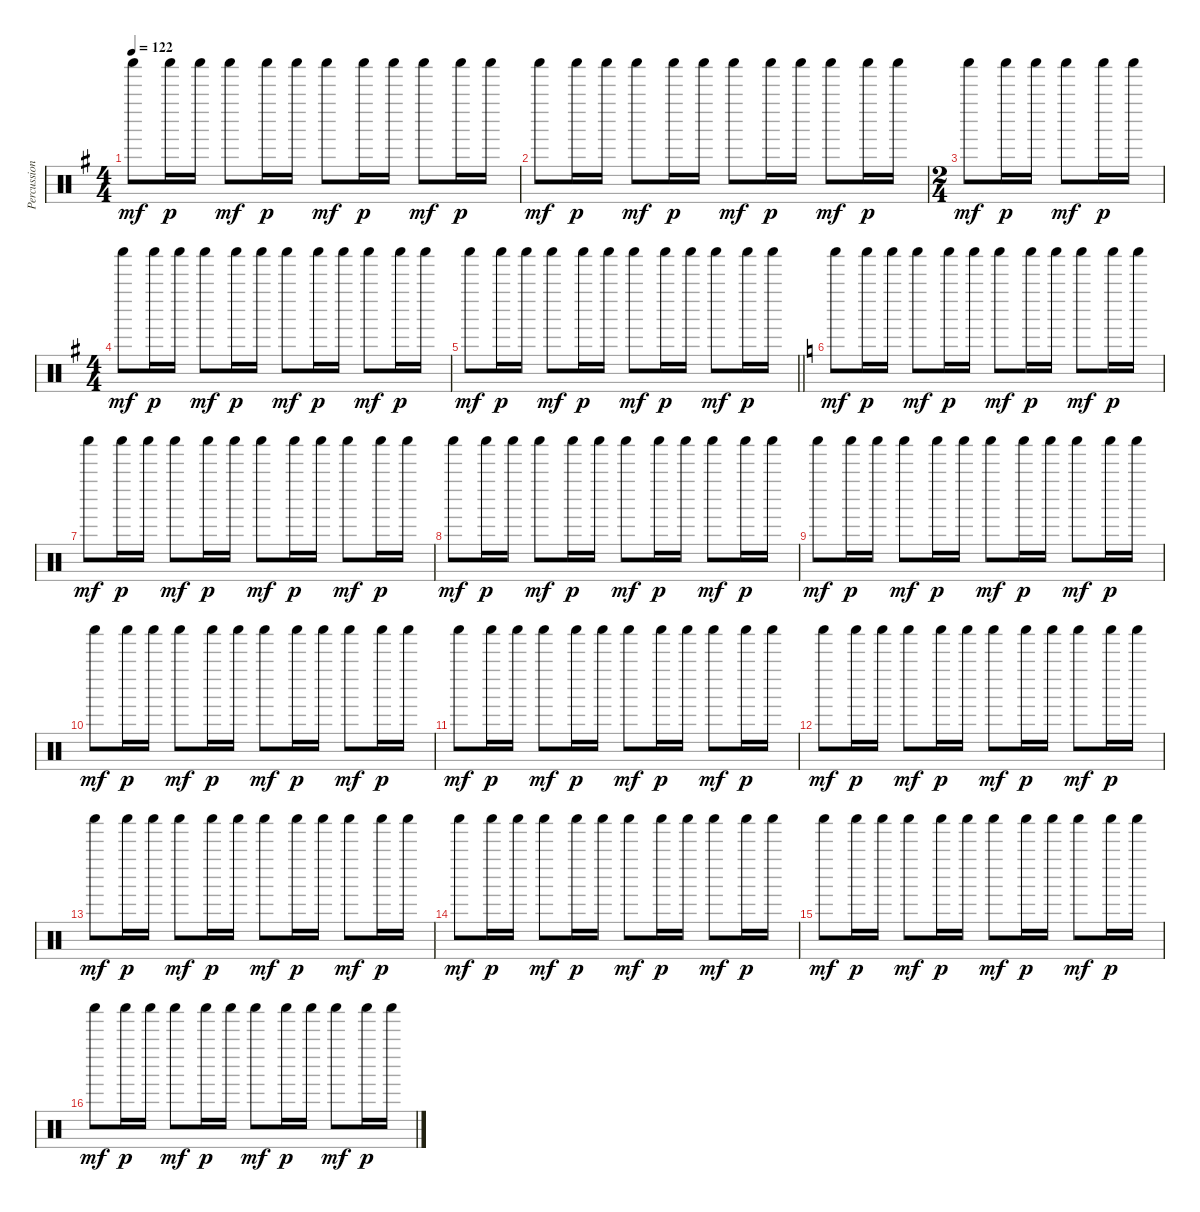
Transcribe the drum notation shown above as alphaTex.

\track ("Percussion" "Percussion") {instrument percussion}
\staff {score}
\articulation defaults
\ts (4 4)
\tempo 122
\clef neutral
\ks g "Shaker (hit)".8{dy mf} "Shaker (hit)".16{dy p} "Shaker (hit)".16 "Shaker (hit)".8{dy mf} "Shaker (hit)".16{dy p} "Shaker (hit)".16 "Shaker (hit)".8{dy mf} "Shaker (hit)".16{dy p} "Shaker (hit)".16 "Shaker (hit)".8{dy mf} "Shaker (hit)".16{dy p} "Shaker (hit)".16
|
"Shaker (hit)".8{dy mf} "Shaker (hit)".16{dy p} "Shaker (hit)".16 "Shaker (hit)".8{dy mf} "Shaker (hit)".16{dy p} "Shaker (hit)".16 "Shaker (hit)".8{dy mf} "Shaker (hit)".16{dy p} "Shaker (hit)".16 "Shaker (hit)".8{dy mf} "Shaker (hit)".16{dy p} "Shaker (hit)".16 |
\ts (2 4)
"Shaker (hit)".8{dy mf} "Shaker (hit)".16{dy p} "Shaker (hit)".16 "Shaker (hit)".8{dy mf} "Shaker (hit)".16{dy p} "Shaker (hit)".16 |
\ts (4 4)
"Shaker (hit)".8{dy mf} "Shaker (hit)".16{dy p} "Shaker (hit)".16 "Shaker (hit)".8{dy mf} "Shaker (hit)".16{dy p} "Shaker (hit)".16 "Shaker (hit)".8{dy mf} "Shaker (hit)".16{dy p} "Shaker (hit)".16 "Shaker (hit)".8{dy mf} "Shaker (hit)".16{dy p} "Shaker (hit)".16 |
\barLineRight lightlight "Shaker (hit)".8{dy mf} "Shaker (hit)".16{dy p} "Shaker (hit)".16 "Shaker (hit)".8{dy mf} "Shaker (hit)".16{dy p} "Shaker (hit)".16 "Shaker (hit)".8{dy mf} "Shaker (hit)".16{dy p} "Shaker (hit)".16 "Shaker (hit)".8{dy mf} "Shaker (hit)".16{dy p} "Shaker (hit)".16
|
\ks c "Shaker (hit)".8{dy mf} "Shaker (hit)".16{dy p} "Shaker (hit)".16 "Shaker (hit)".8{dy mf} "Shaker (hit)".16{dy p} "Shaker (hit)".16 "Shaker (hit)".8{dy mf} "Shaker (hit)".16{dy p} "Shaker (hit)".16 "Shaker (hit)".8{dy mf} "Shaker (hit)".16{dy p} "Shaker (hit)".16
|
"Shaker (hit)".8{dy mf} "Shaker (hit)".16{dy p} "Shaker (hit)".16 "Shaker (hit)".8{dy mf} "Shaker (hit)".16{dy p} "Shaker (hit)".16 "Shaker (hit)".8{dy mf} "Shaker (hit)".16{dy p} "Shaker (hit)".16 "Shaker (hit)".8{dy mf} "Shaker (hit)".16{dy p} "Shaker (hit)".16 |
"Shaker (hit)".8{dy mf} "Shaker (hit)".16{dy p} "Shaker (hit)".16 "Shaker (hit)".8{dy mf} "Shaker (hit)".16{dy p} "Shaker (hit)".16 "Shaker (hit)".8{dy mf} "Shaker (hit)".16{dy p} "Shaker (hit)".16 "Shaker (hit)".8{dy mf} "Shaker (hit)".16{dy p} "Shaker (hit)".16 |
"Shaker (hit)".8{dy mf} "Shaker (hit)".16{dy p} "Shaker (hit)".16 "Shaker (hit)".8{dy mf} "Shaker (hit)".16{dy p} "Shaker (hit)".16 "Shaker (hit)".8{dy mf} "Shaker (hit)".16{dy p} "Shaker (hit)".16 "Shaker (hit)".8{dy mf} "Shaker (hit)".16{dy p} "Shaker (hit)".16 |
"Shaker (hit)".8{dy mf} "Shaker (hit)".16{dy p} "Shaker (hit)".16 "Shaker (hit)".8{dy mf} "Shaker (hit)".16{dy p} "Shaker (hit)".16 "Shaker (hit)".8{dy mf} "Shaker (hit)".16{dy p} "Shaker (hit)".16 "Shaker (hit)".8{dy mf} "Shaker (hit)".16{dy p} "Shaker (hit)".16 |
"Shaker (hit)".8{dy mf} "Shaker (hit)".16{dy p} "Shaker (hit)".16 "Shaker (hit)".8{dy mf} "Shaker (hit)".16{dy p} "Shaker (hit)".16 "Shaker (hit)".8{dy mf} "Shaker (hit)".16{dy p} "Shaker (hit)".16 "Shaker (hit)".8{dy mf} "Shaker (hit)".16{dy p} "Shaker (hit)".16 |
"Shaker (hit)".8{dy mf} "Shaker (hit)".16{dy p} "Shaker (hit)".16 "Shaker (hit)".8{dy mf} "Shaker (hit)".16{dy p} "Shaker (hit)".16 "Shaker (hit)".8{dy mf} "Shaker (hit)".16{dy p} "Shaker (hit)".16 "Shaker (hit)".8{dy mf} "Shaker (hit)".16{dy p} "Shaker (hit)".16 |
"Shaker (hit)".8{dy mf} "Shaker (hit)".16{dy p} "Shaker (hit)".16 "Shaker (hit)".8{dy mf} "Shaker (hit)".16{dy p} "Shaker (hit)".16 "Shaker (hit)".8{dy mf} "Shaker (hit)".16{dy p} "Shaker (hit)".16 "Shaker (hit)".8{dy mf} "Shaker (hit)".16{dy p} "Shaker (hit)".16 |
"Shaker (hit)".8{dy mf} "Shaker (hit)".16{dy p} "Shaker (hit)".16 "Shaker (hit)".8{dy mf} "Shaker (hit)".16{dy p} "Shaker (hit)".16 "Shaker (hit)".8{dy mf} "Shaker (hit)".16{dy p} "Shaker (hit)".16 "Shaker (hit)".8{dy mf} "Shaker (hit)".16{dy p} "Shaker (hit)".16 |
"Shaker (hit)".8{dy mf} "Shaker (hit)".16{dy p} "Shaker (hit)".16 "Shaker (hit)".8{dy mf} "Shaker (hit)".16{dy p} "Shaker (hit)".16 "Shaker (hit)".8{dy mf} "Shaker (hit)".16{dy p} "Shaker (hit)".16 "Shaker (hit)".8{dy mf} "Shaker (hit)".16{dy p} "Shaker (hit)".16 |
"Shaker (hit)".8{dy mf} "Shaker (hit)".16{dy p} "Shaker (hit)".16 "Shaker (hit)".8{dy mf} "Shaker (hit)".16{dy p} "Shaker (hit)".16 "Shaker (hit)".8{dy mf} "Shaker (hit)".16{dy p} "Shaker (hit)".16 "Shaker (hit)".8{dy mf} "Shaker (hit)".16{dy p} "Shaker (hit)".16
